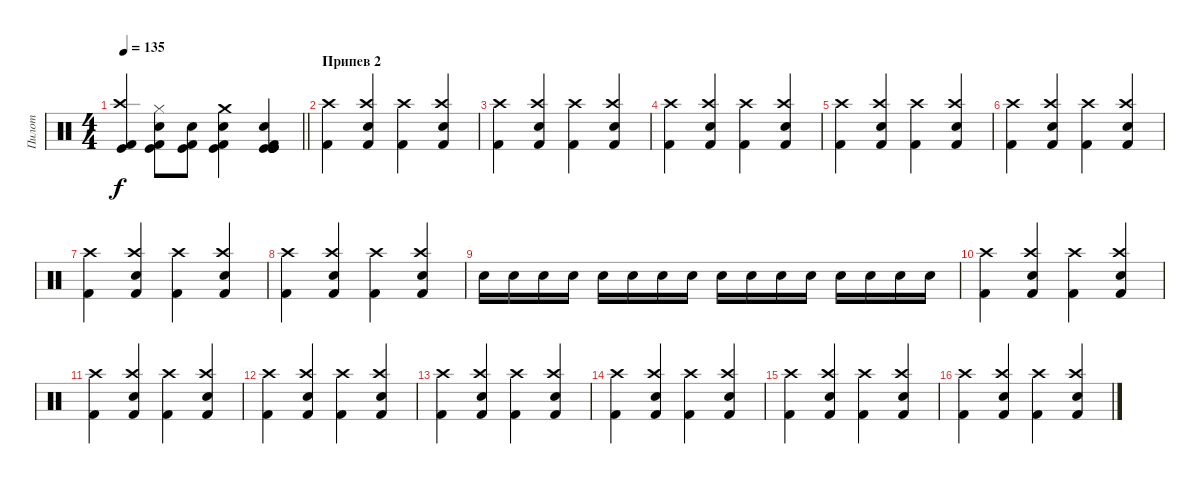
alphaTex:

\track ("Пилот" "Пилот") {instrument percussion}
\staff {score}
\articulation defaults
\ts (4 4)
\tempo 135
\clef neutral
\barLineRight lightlight
\ks c
("Kick (hit) 2" "Crash high (hit)" "Kick (hit)").4{dy f} ("Kick (hit) 2" "Snare (hit) 2" "Hi-Hat (closed)" "Kick (hit)").8 ("Kick (hit) 2" "Snare (hit) 2" "Kick (hit)").8 ("Kick (hit) 2" "Snare (hit) 2" "Crash medium (hit)" "Kick (hit)").4 ("Kick (hit) 2" "Snare (hit) 2" "Kick (hit)" "Kick (hit)" "Kick (hit)" "Kick (hit)").4 |
\section ("" "Припев 2")
("Crash high (hit)" "Kick (hit) 2").4 ("Crash high (hit)" "Kick (hit) 2" "Snare (hit) 2").4 ("Crash high (hit)" "Kick (hit) 2").4 ("Crash high (hit)" "Kick (hit) 2" "Snare (hit) 2").4 |
("Crash high (hit)" "Kick (hit) 2").4 ("Crash high (hit)" "Kick (hit) 2" "Snare (hit) 2").4 ("Crash high (hit)" "Kick (hit) 2").4 ("Crash high (hit)" "Kick (hit) 2" "Snare (hit) 2").4 |
("Crash high (hit)" "Kick (hit) 2").4 ("Crash high (hit)" "Kick (hit) 2" "Snare (hit) 2").4 ("Crash high (hit)" "Kick (hit) 2").4 ("Crash high (hit)" "Kick (hit) 2" "Snare (hit) 2").4 |
("Crash high (hit)" "Kick (hit) 2").4 ("Crash high (hit)" "Kick (hit) 2" "Snare (hit) 2").4 ("Crash high (hit)" "Kick (hit) 2").4 ("Crash high (hit)" "Kick (hit) 2" "Snare (hit) 2").4 |
("Crash high (hit)" "Kick (hit) 2").4 ("Crash high (hit)" "Kick (hit) 2" "Snare (hit) 2").4 ("Crash high (hit)" "Kick (hit) 2").4 ("Crash high (hit)" "Kick (hit) 2" "Snare (hit) 2").4 |
("Crash high (hit)" "Kick (hit) 2").4 ("Crash high (hit)" "Kick (hit) 2" "Snare (hit) 2").4 ("Crash high (hit)" "Kick (hit) 2").4 ("Crash high (hit)" "Kick (hit) 2" "Snare (hit) 2").4 |
("Crash high (hit)" "Kick (hit) 2").4 ("Crash high (hit)" "Kick (hit) 2" "Snare (hit) 2").4 ("Crash high (hit)" "Kick (hit) 2").4 ("Crash high (hit)" "Kick (hit) 2" "Snare (hit) 2").4 |
"Snare (hit) 2".16 "Snare (hit) 2".16 "Snare (hit) 2".16 "Snare (hit) 2".16 "Snare (hit) 2".16 "Snare (hit) 2".16 "Snare (hit) 2".16 "Snare (hit) 2".16 "Snare (hit) 2".16 "Snare (hit) 2".16 "Snare (hit) 2".16 "Snare (hit) 2".16 "Snare (hit) 2".16 "Snare (hit) 2".16 "Snare (hit) 2".16 "Snare (hit) 2".16 |
("Crash high (hit)" "Kick (hit) 2").4 ("Crash high (hit)" "Kick (hit) 2" "Snare (hit) 2").4 ("Crash high (hit)" "Kick (hit) 2").4 ("Crash high (hit)" "Kick (hit) 2" "Snare (hit) 2").4 |
("Crash high (hit)" "Kick (hit) 2").4 ("Crash high (hit)" "Kick (hit) 2" "Snare (hit) 2").4 ("Crash high (hit)" "Kick (hit) 2").4 ("Crash high (hit)" "Kick (hit) 2" "Snare (hit) 2").4 |
("Crash high (hit)" "Kick (hit) 2").4 ("Crash high (hit)" "Kick (hit) 2" "Snare (hit) 2").4 ("Crash high (hit)" "Kick (hit) 2").4 ("Crash high (hit)" "Kick (hit) 2" "Snare (hit) 2").4 |
("Crash high (hit)" "Kick (hit) 2").4 ("Crash high (hit)" "Kick (hit) 2" "Snare (hit) 2").4 ("Crash high (hit)" "Kick (hit) 2").4 ("Crash high (hit)" "Kick (hit) 2" "Snare (hit) 2").4 |
("Crash high (hit)" "Kick (hit) 2").4 ("Crash high (hit)" "Kick (hit) 2" "Snare (hit) 2").4 ("Crash high (hit)" "Kick (hit) 2").4 ("Crash high (hit)" "Kick (hit) 2" "Snare (hit) 2").4 |
("Crash high (hit)" "Kick (hit) 2").4 ("Crash high (hit)" "Kick (hit) 2" "Snare (hit) 2").4 ("Crash high (hit)" "Kick (hit) 2").4 ("Crash high (hit)" "Kick (hit) 2" "Snare (hit) 2").4 |
("Crash high (hit)" "Kick (hit) 2").4 ("Crash high (hit)" "Kick (hit) 2" "Snare (hit) 2").4 ("Crash high (hit)" "Kick (hit) 2").4 ("Crash high (hit)" "Kick (hit) 2" "Snare (hit) 2").4
